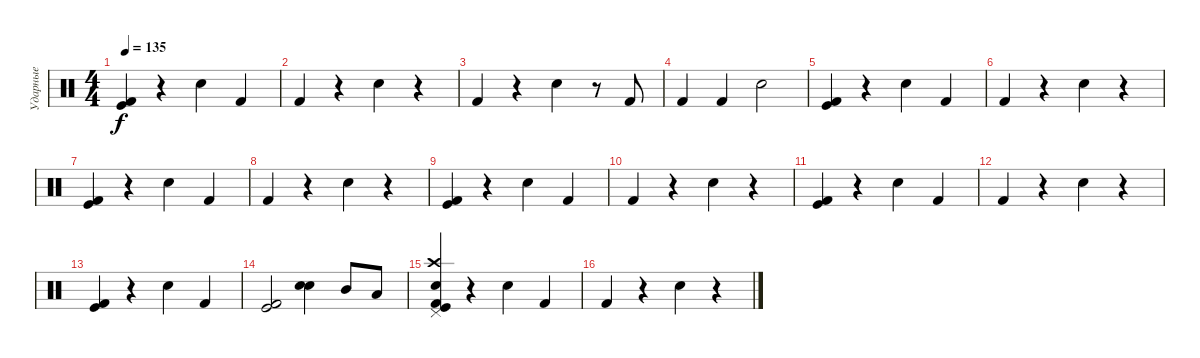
\track ("Ударные" "Ударные") {instrument percussion}
\staff {score}
\articulation defaults
\ts (4 4)
\tempo 135
\clef neutral
\ks c
("Kick (hit) 2" "Kick (hit)").4{dy f} r.4 "Electric Snare (hit)".4 "Kick (hit) 2".4 |
"Kick (hit) 2".4 r.4 "Electric Snare (hit)".4 r.4 |
"Kick (hit) 2".4 r.4 "Electric Snare (hit)".4 r.8 "Kick (hit) 2".8 |
"Kick (hit) 2".4 "Kick (hit) 2".4 "Electric Snare (hit)".2 |
("Kick (hit) 2" "Kick (hit)").4 r.4 "Electric Snare (hit)".4 "Kick (hit) 2".4 |
"Kick (hit) 2".4 r.4 "Electric Snare (hit)".4 r.4 |
("Kick (hit) 2" "Kick (hit)").4 r.4 "Electric Snare (hit)".4 "Kick (hit) 2".4 |
"Kick (hit) 2".4 r.4 "Electric Snare (hit)".4 r.4 |
("Kick (hit) 2" "Kick (hit)").4 r.4 "Electric Snare (hit)".4 "Kick (hit) 2".4 |
"Kick (hit) 2".4 r.4 "Electric Snare (hit)".4 r.4 |
("Kick (hit) 2" "Kick (hit)").4 r.4 "Electric Snare (hit)".4 "Kick (hit) 2".4 |
"Kick (hit) 2".4 r.4 "Electric Snare (hit)".4 r.4 |
("Kick (hit) 2" "Kick (hit)").4 r.4 "Electric Snare (hit)".4 "Kick (hit) 2".4 |
("Kick (hit)" "Kick (hit) 2").2 ("Snare (hit) 2" "Electric Snare (hit)").4 "Mid Tom (hit)".8 "Low Tom (hit)".8 |
("Crash high (hit)" "Kick (hit) 2" "Kick (hit)" "Pedal Hi-Hat (hit)" "Snare (hit) 2").4 r.4 "Electric Snare (hit)".4 "Kick (hit) 2".4 |
"Kick (hit) 2".4 r.4 "Electric Snare (hit)".4 r.4
